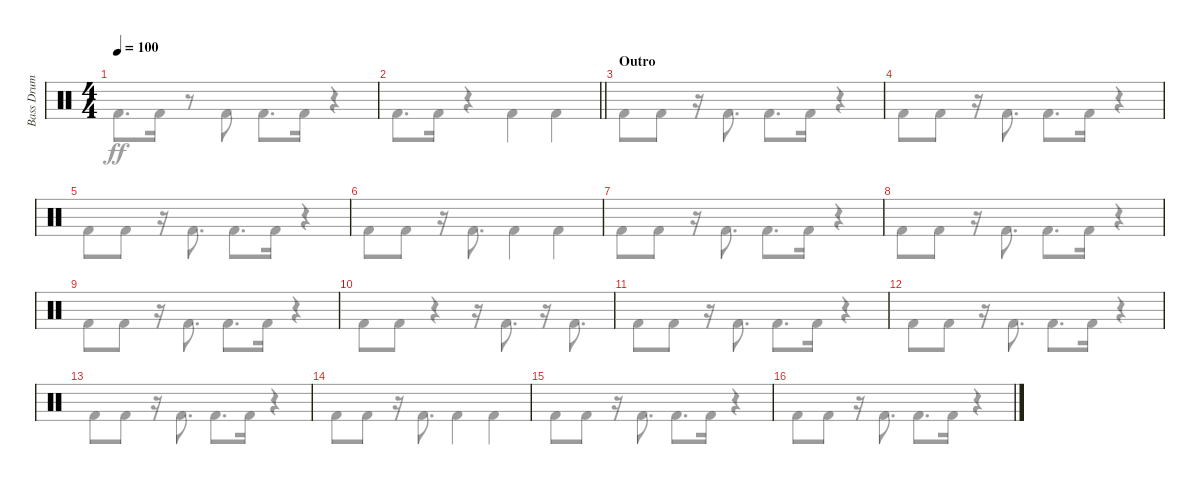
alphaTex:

\track ("Bass Drum" "Bass Drum") {instrument percussion}
\staff {score}
\articulation defaults
\voice
\ts (4 4)
\tempo 100
\clef neutral
\ks c
|
\barLineRight lightlight
|
\section ("" "Outro")
|
|
|
|
|
|
|
|
|
|
|
|
|
\voice
\clef neutral
\ks c "Kick (hit) 2".8{d dy ff} "Kick (hit) 2".16
r.8 "Kick (hit) 2".8 "Kick (hit) 2".8{d} "Kick (hit) 2".16 r.4 |
\barLineRight lightlight "Kick (hit) 2".8{d} "Kick (hit) 2".16
r.4 "Kick (hit) 2".4 "Kick (hit) 2".4 |
"Kick (hit) 2".8 "Kick (hit) 2".8 r.16 "Kick (hit) 2".8{d} "Kick (hit) 2".8{d} "Kick (hit) 2".16 r.4 |
"Kick (hit) 2".8 "Kick (hit) 2".8 r.16 "Kick (hit) 2".8{d} "Kick (hit) 2".8{d} "Kick (hit) 2".16 r.4 |
"Kick (hit) 2".8 "Kick (hit) 2".8 r.16 "Kick (hit) 2".8{d} "Kick (hit) 2".8{d} "Kick (hit) 2".16 r.4 |
"Kick (hit) 2".8 "Kick (hit) 2".8 r.16 "Kick (hit) 2".8{d} "Kick (hit) 2".4 "Kick (hit) 2".4 |
"Kick (hit) 2".8 "Kick (hit) 2".8 r.16 "Kick (hit) 2".8{d} "Kick (hit) 2".8{d} "Kick (hit) 2".16 r.4 |
"Kick (hit) 2".8 "Kick (hit) 2".8 r.16 "Kick (hit) 2".8{d} "Kick (hit) 2".8{d} "Kick (hit) 2".16 r.4 |
"Kick (hit) 2".8 "Kick (hit) 2".8 r.16 "Kick (hit) 2".8{d} "Kick (hit) 2".8{d} "Kick (hit) 2".16 r.4 |
"Kick (hit) 2".8 "Kick (hit) 2".8 r.4 r.16 "Kick (hit) 2".8{d} r.16 "Kick (hit) 2".8{d} |
"Kick (hit) 2".8 "Kick (hit) 2".8 r.16 "Kick (hit) 2".8{d} "Kick (hit) 2".8{d} "Kick (hit) 2".16 r.4 |
"Kick (hit) 2".8 "Kick (hit) 2".8 r.16 "Kick (hit) 2".8{d} "Kick (hit) 2".8{d} "Kick (hit) 2".16 r.4 |
"Kick (hit) 2".8 "Kick (hit) 2".8 r.16 "Kick (hit) 2".8{d} "Kick (hit) 2".8{d} "Kick (hit) 2".16 r.4 |
"Kick (hit) 2".8 "Kick (hit) 2".8 r.16 "Kick (hit) 2".8{d} "Kick (hit) 2".4 "Kick (hit) 2".4 |
"Kick (hit) 2".8 "Kick (hit) 2".8 r.16 "Kick (hit) 2".8{d} "Kick (hit) 2".8{d} "Kick (hit) 2".16 r.4 |
"Kick (hit) 2".8 "Kick (hit) 2".8 r.16 "Kick (hit) 2".8{d} "Kick (hit) 2".8{d} "Kick (hit) 2".16 r.4
